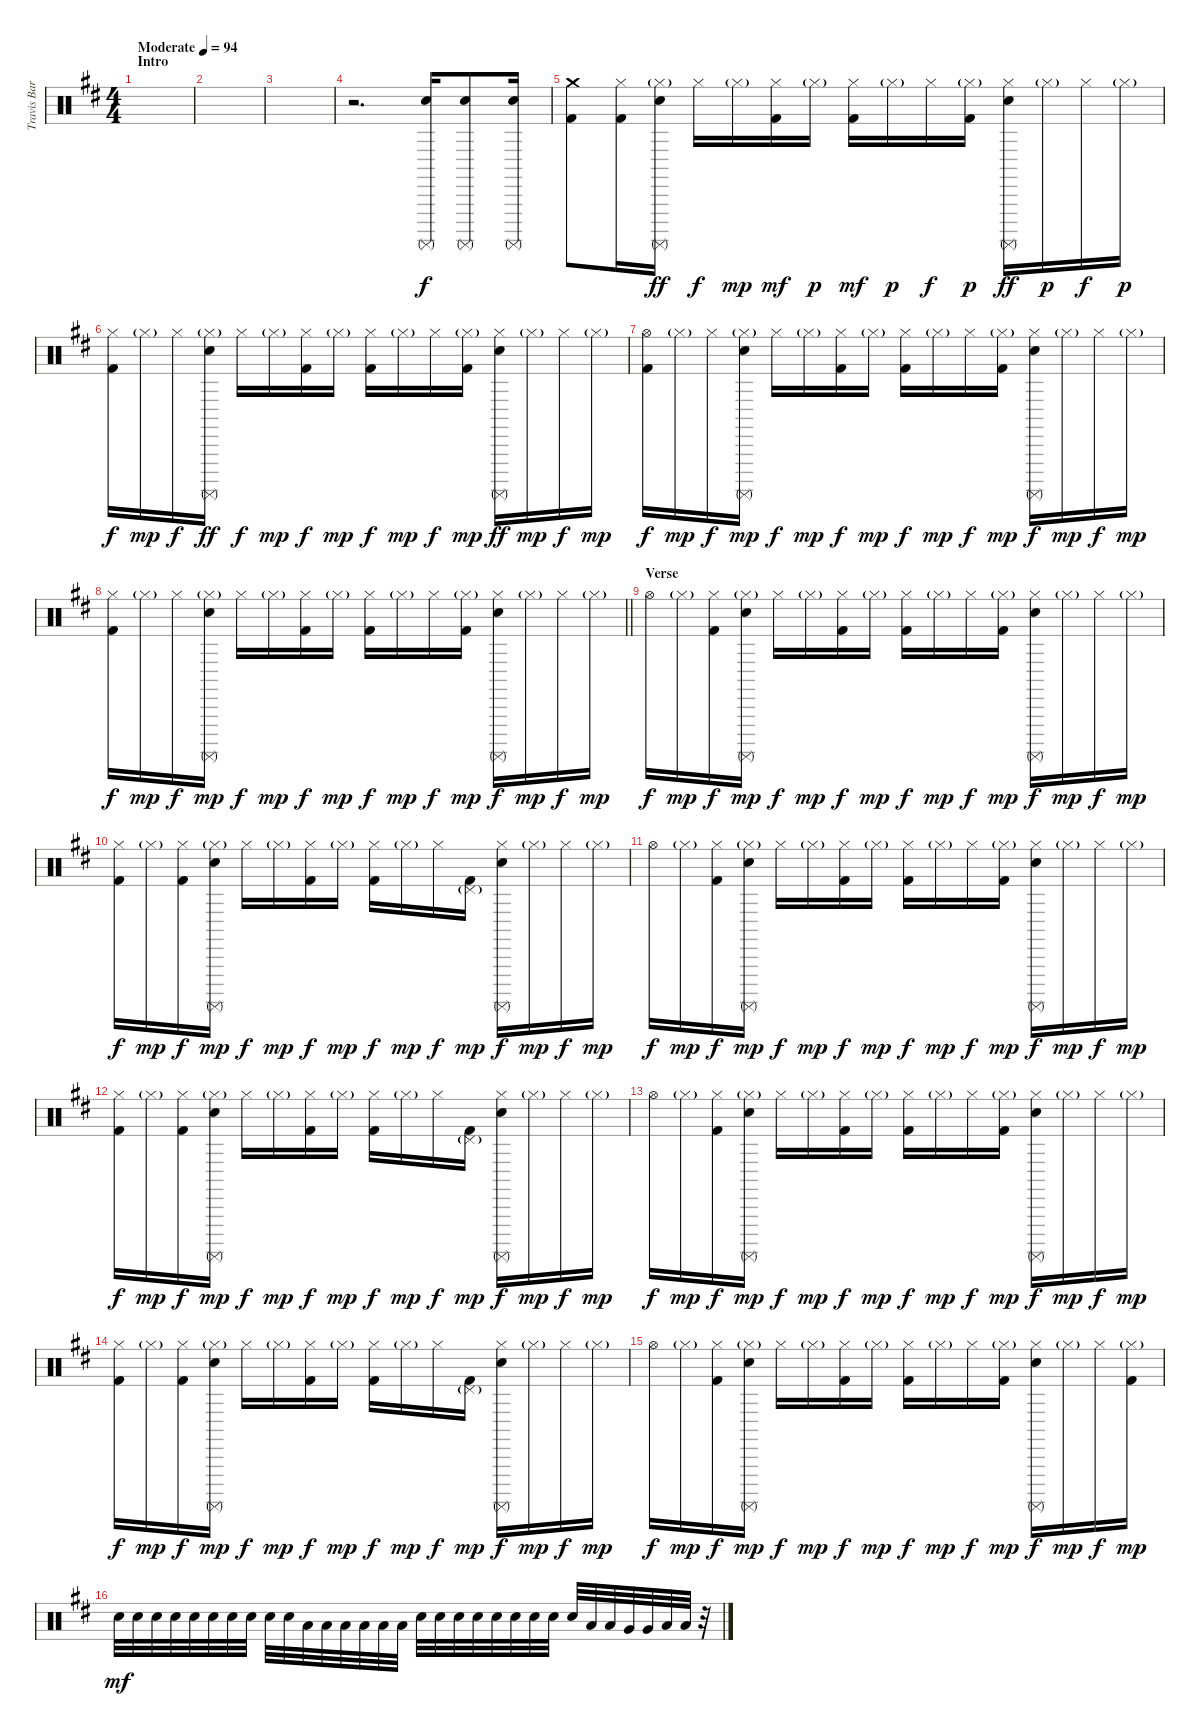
\track ("Travis Barker" "Travis Bar") {instrument percussion}
\staff {score}
\articulation defaults
\ts (4 4)
\section ("" "Intro")
\tempo (94 "Moderate")
\clef neutral
\ks d
|
|
|
r.2{d} ("Electric Snare (hit)" "Surdo (mute)").16 ("Electric Snare (hit)" "Surdo (mute)").8 ("Electric Snare (hit)" "Surdo (mute)").16 |
("Crash medium (hit)" "Kick (hit) 2").8 ("Hi-Hat (closed)" "Kick (hit) 2").16{dy f} ("Hi-Hat (closed)"{g} "Electric Snare (hit)" "Surdo (mute)").16{dy ff} "Hi-Hat (closed)".16{dy f} "Hi-Hat (closed)"{g}.16{dy mp} ("Hi-Hat (closed)" "Kick (hit) 2").16{dy mf} "Hi-Hat (closed)"{g}.16{dy p} ("Hi-Hat (closed)" "Kick (hit) 2").16{dy mf} "Hi-Hat (closed)"{g}.16{dy p} "Hi-Hat (closed)".16{dy f} ("Hi-Hat (closed)"{g} "Kick (hit) 2").16{dy p} ("Hi-Hat (closed)" "Electric Snare (hit)" "Surdo (mute)").16{dy ff} "Hi-Hat (closed)"{g}.16{dy p} "Hi-Hat (closed)".16{dy f} "Hi-Hat (closed)"{g}.16{dy p} |
("Hi-Hat (closed)" "Kick (hit) 2").16{dy f} "Hi-Hat (closed)"{g}.16{dy mp} "Hi-Hat (closed)".16{dy f} ("Hi-Hat (closed)"{g} "Electric Snare (hit)" "Surdo (mute)").16{dy ff} "Hi-Hat (closed)".16{dy f} "Hi-Hat (closed)"{g}.16{dy mp} ("Hi-Hat (closed)" "Kick (hit) 2").16{dy f} "Hi-Hat (closed)"{g}.16{dy mp} ("Hi-Hat (closed)" "Kick (hit) 2").16{dy f} "Hi-Hat (closed)"{g}.16{dy mp} "Hi-Hat (closed)".16{dy f} ("Hi-Hat (closed)"{g} "Kick (hit) 2").16{dy mp} ("Hi-Hat (closed)" "Electric Snare (hit)" "Surdo (mute)").16{dy ff} "Hi-Hat (closed)"{g}.16{dy mp} "Hi-Hat (closed)".16{dy f} "Hi-Hat (closed)"{g}.16{dy mp} |
("Hi-Hat (open)" "Kick (hit) 2").16{dy f} "Hi-Hat (closed)"{g}.16{dy mp} "Hi-Hat (closed)".16{dy f} ("Hi-Hat (closed)"{g} "Electric Snare (hit)" "Surdo (mute)").16{dy mp} "Hi-Hat (closed)".16{dy f} "Hi-Hat (closed)"{g}.16{dy mp} ("Hi-Hat (closed)" "Kick (hit) 2").16{dy f} "Hi-Hat (closed)"{g}.16{dy mp} ("Hi-Hat (closed)" "Kick (hit) 2").16{dy f} "Hi-Hat (closed)"{g}.16{dy mp} "Hi-Hat (closed)".16{dy f} ("Hi-Hat (closed)"{g} "Kick (hit) 2").16{dy mp} ("Hi-Hat (closed)" "Electric Snare (hit)" "Surdo (mute)").16{dy f} "Hi-Hat (closed)"{g}.16{dy mp} "Hi-Hat (closed)".16{dy f} "Hi-Hat (closed)"{g}.16{dy mp} |
\barLineRight lightlight
("Hi-Hat (closed)" "Kick (hit) 2").16{dy f} "Hi-Hat (closed)"{g}.16{dy mp} "Hi-Hat (closed)".16{dy f} ("Hi-Hat (closed)"{g} "Electric Snare (hit)" "Surdo (mute)").16{dy mp} "Hi-Hat (closed)".16{dy f} "Hi-Hat (closed)"{g}.16{dy mp} ("Hi-Hat (closed)" "Kick (hit) 2").16{dy f} "Hi-Hat (closed)"{g}.16{dy mp} ("Hi-Hat (closed)" "Kick (hit) 2").16{dy f} "Hi-Hat (closed)"{g}.16{dy mp} "Hi-Hat (closed)".16{dy f} ("Hi-Hat (closed)"{g} "Kick (hit) 2").16{dy mp} ("Hi-Hat (closed)" "Electric Snare (hit)" "Surdo (mute)").16{dy f} "Hi-Hat (closed)"{g}.16{dy mp} "Hi-Hat (closed)".16{dy f} "Hi-Hat (closed)"{g}.16{dy mp} |
\section ("" "Verse")
"Hi-Hat (open)".16{dy f} "Hi-Hat (closed)"{g}.16{dy mp} ("Hi-Hat (closed)" "Kick (hit) 2").16{dy f} ("Hi-Hat (closed)"{g} "Electric Snare (hit)" "Surdo (mute)").16{dy mp} "Hi-Hat (closed)".16{dy f} "Hi-Hat (closed)"{g}.16{dy mp} ("Hi-Hat (closed)" "Kick (hit) 2").16{dy f} "Hi-Hat (closed)"{g}.16{dy mp} ("Hi-Hat (closed)" "Kick (hit) 2").16{dy f} "Hi-Hat (closed)"{g}.16{dy mp} "Hi-Hat (closed)".16{dy f} ("Hi-Hat (closed)"{g} "Kick (hit) 2").16{dy mp} ("Hi-Hat (closed)" "Electric Snare (hit)" "Surdo (mute)").16{dy f} "Hi-Hat (closed)"{g}.16{dy mp} "Hi-Hat (closed)".16{dy f} "Hi-Hat (closed)"{g}.16{dy mp} |
("Hi-Hat (closed)" "Kick (hit) 2").16{dy f} "Hi-Hat (closed)"{g}.16{dy mp} ("Hi-Hat (closed)" "Kick (hit) 2").16{dy f} ("Hi-Hat (closed)"{g} "Electric Snare (hit)" "Surdo (mute)").16{dy mp} "Hi-Hat (closed)".16{dy f} "Hi-Hat (closed)"{g}.16{dy mp} ("Hi-Hat (closed)" "Kick (hit) 2").16{dy f} "Hi-Hat (closed)"{g}.16{dy mp} ("Hi-Hat (closed)" "Kick (hit) 2").16{dy f} "Hi-Hat (closed)"{g}.16{dy mp} "Hi-Hat (closed)".16{dy f} ("Pedal Hi-Hat (hit)"{g} "Kick (hit) 2").16{dy mp} ("Hi-Hat (closed)" "Electric Snare (hit)" "Surdo (mute)").16{dy f} "Hi-Hat (closed)"{g}.16{dy mp} "Hi-Hat (closed)".16{dy f} "Hi-Hat (closed)"{g}.16{dy mp} |
"Hi-Hat (open)".16{dy f} "Hi-Hat (closed)"{g}.16{dy mp} ("Hi-Hat (closed)" "Kick (hit) 2").16{dy f} ("Hi-Hat (closed)"{g} "Electric Snare (hit)" "Surdo (mute)").16{dy mp} "Hi-Hat (closed)".16{dy f} "Hi-Hat (closed)"{g}.16{dy mp} ("Hi-Hat (closed)" "Kick (hit) 2").16{dy f} "Hi-Hat (closed)"{g}.16{dy mp} ("Hi-Hat (closed)" "Kick (hit) 2").16{dy f} "Hi-Hat (closed)"{g}.16{dy mp} "Hi-Hat (closed)".16{dy f} ("Hi-Hat (closed)"{g} "Kick (hit) 2").16{dy mp} ("Hi-Hat (closed)" "Electric Snare (hit)" "Surdo (mute)").16{dy f} "Hi-Hat (closed)"{g}.16{dy mp} "Hi-Hat (closed)".16{dy f} "Hi-Hat (closed)"{g}.16{dy mp} |
("Hi-Hat (closed)" "Kick (hit) 2").16{dy f} "Hi-Hat (closed)"{g}.16{dy mp} ("Hi-Hat (closed)" "Kick (hit) 2").16{dy f} ("Hi-Hat (closed)"{g} "Electric Snare (hit)" "Surdo (mute)").16{dy mp} "Hi-Hat (closed)".16{dy f} "Hi-Hat (closed)"{g}.16{dy mp} ("Hi-Hat (closed)" "Kick (hit) 2").16{dy f} "Hi-Hat (closed)"{g}.16{dy mp} ("Hi-Hat (closed)" "Kick (hit) 2").16{dy f} "Hi-Hat (closed)"{g}.16{dy mp} "Hi-Hat (closed)".16{dy f} ("Pedal Hi-Hat (hit)"{g} "Kick (hit) 2").16{dy mp} ("Hi-Hat (closed)" "Electric Snare (hit)" "Surdo (mute)").16{dy f} "Hi-Hat (closed)"{g}.16{dy mp} "Hi-Hat (closed)".16{dy f} "Hi-Hat (closed)"{g}.16{dy mp} |
"Hi-Hat (open)".16{dy f} "Hi-Hat (closed)"{g}.16{dy mp} ("Hi-Hat (closed)" "Kick (hit) 2").16{dy f} ("Hi-Hat (closed)"{g} "Electric Snare (hit)" "Surdo (mute)").16{dy mp} "Hi-Hat (closed)".16{dy f} "Hi-Hat (closed)"{g}.16{dy mp} ("Hi-Hat (closed)" "Kick (hit) 2").16{dy f} "Hi-Hat (closed)"{g}.16{dy mp} ("Hi-Hat (closed)" "Kick (hit) 2").16{dy f} "Hi-Hat (closed)"{g}.16{dy mp} "Hi-Hat (closed)".16{dy f} ("Hi-Hat (closed)"{g} "Kick (hit) 2").16{dy mp} ("Hi-Hat (closed)" "Electric Snare (hit)" "Surdo (mute)").16{dy f} "Hi-Hat (closed)"{g}.16{dy mp} "Hi-Hat (closed)".16{dy f} "Hi-Hat (closed)"{g}.16{dy mp} |
("Hi-Hat (closed)" "Kick (hit) 2").16{dy f} "Hi-Hat (closed)"{g}.16{dy mp} ("Hi-Hat (closed)" "Kick (hit) 2").16{dy f} ("Hi-Hat (closed)"{g} "Electric Snare (hit)" "Surdo (mute)").16{dy mp} "Hi-Hat (closed)".16{dy f} "Hi-Hat (closed)"{g}.16{dy mp} ("Hi-Hat (closed)" "Kick (hit) 2").16{dy f} "Hi-Hat (closed)"{g}.16{dy mp} ("Hi-Hat (closed)" "Kick (hit) 2").16{dy f} "Hi-Hat (closed)"{g}.16{dy mp} "Hi-Hat (closed)".16{dy f} ("Pedal Hi-Hat (hit)"{g} "Kick (hit) 2").16{dy mp} ("Hi-Hat (closed)" "Electric Snare (hit)" "Surdo (mute)").16{dy f} "Hi-Hat (closed)"{g}.16{dy mp} "Hi-Hat (closed)".16{dy f} "Hi-Hat (closed)"{g}.16{dy mp} |
"Hi-Hat (open)".16{dy f} "Hi-Hat (closed)"{g}.16{dy mp} ("Hi-Hat (closed)" "Kick (hit) 2").16{dy f} ("Hi-Hat (closed)"{g} "Electric Snare (hit)" "Surdo (mute)").16{dy mp} "Hi-Hat (closed)".16{dy f} "Hi-Hat (closed)"{g}.16{dy mp} ("Hi-Hat (closed)" "Kick (hit) 2").16{dy f} "Hi-Hat (closed)"{g}.16{dy mp} ("Hi-Hat (closed)" "Kick (hit) 2").16{dy f} "Hi-Hat (closed)"{g}.16{dy mp} "Hi-Hat (closed)".16{dy f} ("Hi-Hat (closed)"{g} "Kick (hit) 2").16{dy mp} ("Hi-Hat (closed)" "Electric Snare (hit)" "Surdo (mute)").16{dy f} "Hi-Hat (closed)"{g}.16{dy mp} "Hi-Hat (closed)".16{dy f} ("Hi-Hat (closed)"{g} "Kick (hit) 2").16{dy mp} |
"Electric Snare (hit)".32{dy mf} "Electric Snare (hit)".32 "Electric Snare (hit)".32 "Electric Snare (hit)".32 "Electric Snare (hit)".32 "Electric Snare (hit)".32 "Electric Snare (hit)".32 "Electric Snare (hit)".32 "Electric Snare (hit)".32 "Electric Snare (hit)".32 "Low Tom (hit)".32 "Low Tom (hit)".32 "Low Tom (hit)".32 "Low Tom (hit)".32 "Low Tom (hit)".32 "Low Tom (hit)".32 "Electric Snare (hit)".32 "Electric Snare (hit)".32 "Electric Snare (hit)".32 "Electric Snare (hit)".32 "Electric Snare (hit)".32 "Electric Snare (hit)".32 "Electric Snare (hit)".32 "Electric Snare (hit)".32 "Electric Snare (hit)".32 "Low Tom (hit)".32 "Low Tom (hit)".32 "Very Low Tom (hit)".32 "Very Low Tom (hit)".32 "Low Floor Tom (hit)".32 "Low Floor Tom (hit)".32 r.32
